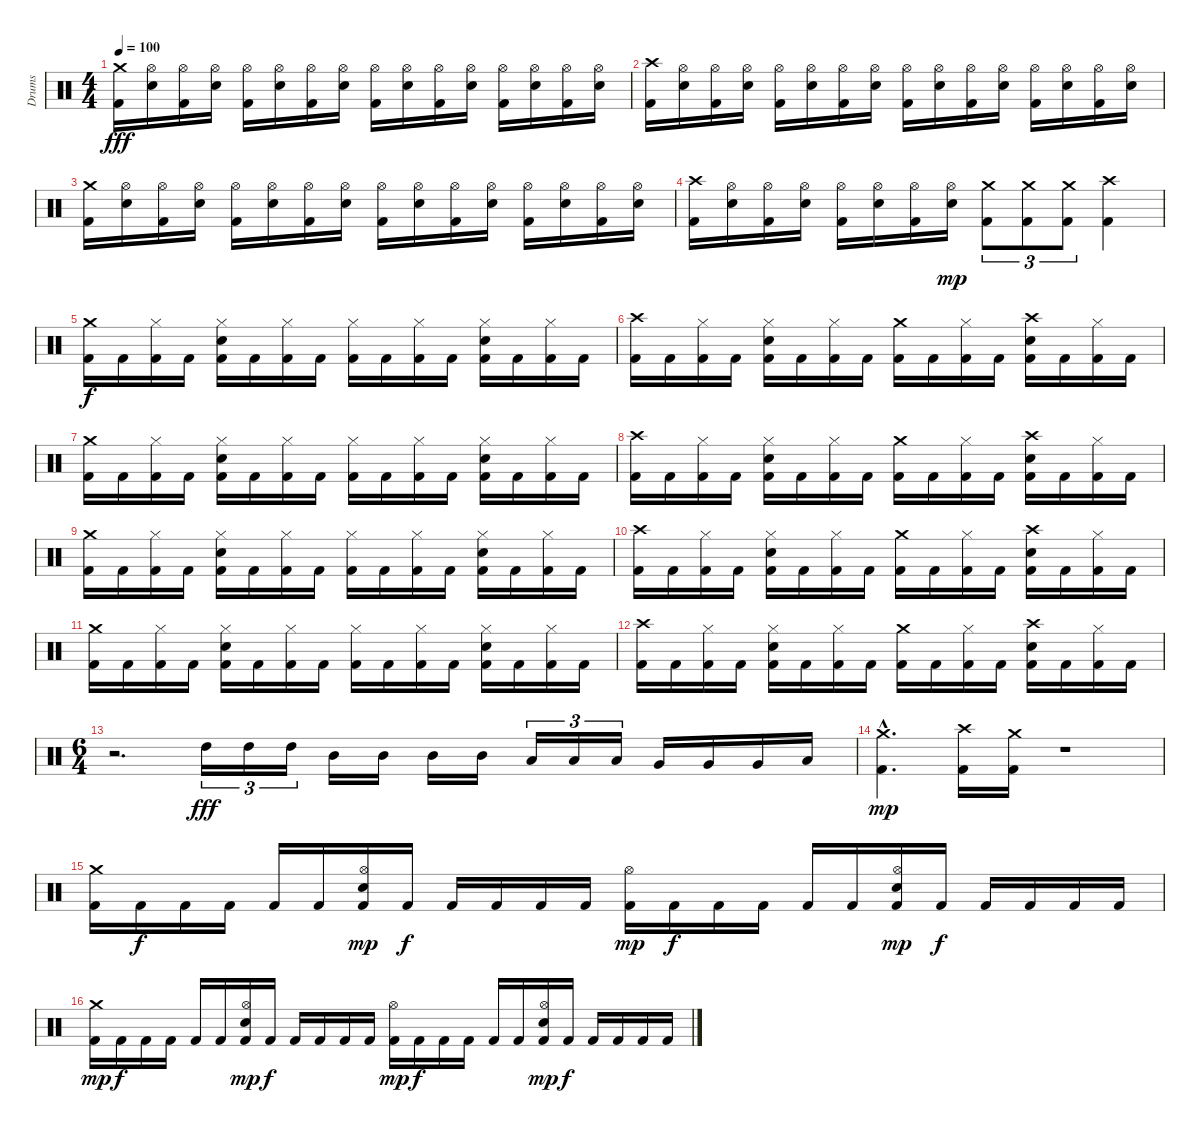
\track ("Drums" "Drums") {instrument percussion}
\staff {score}
\articulation defaults
\ts (4 4)
\tempo 100
\clef neutral
\ks c
("Crash medium (hit)" "Kick (hit) 2").16{dy fff} ("Hi-Hat (open)" "Snare (hit) 2").16 ("Hi-Hat (open)" "Kick (hit) 2").16 ("Hi-Hat (open)" "Snare (hit) 2").16 ("Hi-Hat (open)" "Kick (hit) 2").16 ("Hi-Hat (open)" "Snare (hit) 2").16 ("Hi-Hat (open)" "Kick (hit) 2").16 ("Hi-Hat (open)" "Snare (hit) 2").16 ("Hi-Hat (open)" "Kick (hit) 2").16 ("Hi-Hat (open)" "Snare (hit) 2").16 ("Hi-Hat (open)" "Kick (hit) 2").16 ("Hi-Hat (open)" "Snare (hit) 2").16 ("Hi-Hat (open)" "Kick (hit) 2").16 ("Hi-Hat (open)" "Snare (hit) 2").16 ("Hi-Hat (open)" "Kick (hit) 2").16 ("Hi-Hat (open)" "Snare (hit) 2").16 |
("Crash high (hit)" "Kick (hit) 2").16 ("Hi-Hat (open)" "Snare (hit) 2").16 ("Hi-Hat (open)" "Kick (hit) 2").16 ("Hi-Hat (open)" "Snare (hit) 2").16 ("Hi-Hat (open)" "Kick (hit) 2").16 ("Hi-Hat (open)" "Snare (hit) 2").16 ("Hi-Hat (open)" "Kick (hit) 2").16 ("Hi-Hat (open)" "Snare (hit) 2").16 ("Hi-Hat (open)" "Kick (hit) 2").16 ("Hi-Hat (open)" "Snare (hit) 2").16 ("Hi-Hat (open)" "Kick (hit) 2").16 ("Hi-Hat (open)" "Snare (hit) 2").16 ("Hi-Hat (open)" "Kick (hit) 2").16 ("Hi-Hat (open)" "Snare (hit) 2").16 ("Hi-Hat (open)" "Kick (hit) 2").16 ("Hi-Hat (open)" "Snare (hit) 2").16 |
("Crash medium (hit)" "Kick (hit) 2").16 ("Hi-Hat (open)" "Snare (hit) 2").16 ("Hi-Hat (open)" "Kick (hit) 2").16 ("Hi-Hat (open)" "Snare (hit) 2").16 ("Hi-Hat (open)" "Kick (hit) 2").16 ("Hi-Hat (open)" "Snare (hit) 2").16 ("Hi-Hat (open)" "Kick (hit) 2").16 ("Hi-Hat (open)" "Snare (hit) 2").16 ("Hi-Hat (open)" "Kick (hit) 2").16 ("Hi-Hat (open)" "Snare (hit) 2").16 ("Hi-Hat (open)" "Kick (hit) 2").16 ("Hi-Hat (open)" "Snare (hit) 2").16 ("Hi-Hat (open)" "Kick (hit) 2").16 ("Hi-Hat (open)" "Snare (hit) 2").16 ("Hi-Hat (open)" "Kick (hit) 2").16 ("Hi-Hat (open)" "Snare (hit) 2").16 |
("Crash high (hit)" "Kick (hit) 2").16 ("Hi-Hat (open)" "Snare (hit) 2").16 ("Hi-Hat (open)" "Kick (hit) 2").16 ("Hi-Hat (open)" "Snare (hit) 2").16 ("Hi-Hat (open)" "Kick (hit) 2").16 ("Hi-Hat (open)" "Snare (hit) 2").16 ("Hi-Hat (open)" "Kick (hit) 2").16 ("Hi-Hat (open)" "Snare (hit) 2").16{dy mp} ("Crash medium (hit)" "Kick (hit) 2").8{tu (3 2)} ("Crash medium (hit)" "Kick (hit) 2").8{tu (3 2)} ("Crash medium (hit)" "Kick (hit) 2").8{tu (3 2)} ("Crash high (hit)" "Kick (hit) 2").4 |
("Crash medium (hit)" "Kick (hit) 2").16{dy f} "Kick (hit) 2".16 ("Hi-Hat (closed)" "Kick (hit) 2").16 "Kick (hit) 2".16 ("Hi-Hat (closed)" "Snare (hit) 2" "Kick (hit) 2").16 "Kick (hit) 2".16 ("Hi-Hat (closed)" "Kick (hit) 2").16 "Kick (hit) 2".16 ("Hi-Hat (closed)" "Kick (hit) 2").16 "Kick (hit) 2".16 ("Hi-Hat (closed)" "Kick (hit) 2").16 "Kick (hit) 2".16 ("Hi-Hat (closed)" "Snare (hit) 2" "Kick (hit) 2").16 "Kick (hit) 2".16 ("Hi-Hat (closed)" "Kick (hit) 2").16 "Kick (hit) 2".16 |
("Crash high (hit)" "Kick (hit) 2").16 "Kick (hit) 2".16 ("Hi-Hat (closed)" "Kick (hit) 2").16 "Kick (hit) 2".16 ("Hi-Hat (closed)" "Snare (hit) 2" "Kick (hit) 2").16 "Kick (hit) 2".16 ("Hi-Hat (closed)" "Kick (hit) 2").16 "Kick (hit) 2".16 ("Crash medium (hit)" "Kick (hit) 2").16 "Kick (hit) 2".16 ("Hi-Hat (closed)" "Kick (hit) 2").16 "Kick (hit) 2".16 ("Crash high (hit)" "Snare (hit) 2" "Kick (hit) 2").16 "Kick (hit) 2".16 ("Hi-Hat (closed)" "Kick (hit) 2").16 "Kick (hit) 2".16 |
("Crash medium (hit)" "Kick (hit) 2").16 "Kick (hit) 2".16 ("Hi-Hat (closed)" "Kick (hit) 2").16 "Kick (hit) 2".16 ("Hi-Hat (closed)" "Snare (hit) 2" "Kick (hit) 2").16 "Kick (hit) 2".16 ("Hi-Hat (closed)" "Kick (hit) 2").16 "Kick (hit) 2".16 ("Hi-Hat (closed)" "Kick (hit) 2").16 "Kick (hit) 2".16 ("Hi-Hat (closed)" "Kick (hit) 2").16 "Kick (hit) 2".16 ("Hi-Hat (closed)" "Snare (hit) 2" "Kick (hit) 2").16 "Kick (hit) 2".16 ("Hi-Hat (closed)" "Kick (hit) 2").16 "Kick (hit) 2".16 |
("Crash high (hit)" "Kick (hit) 2").16 "Kick (hit) 2".16 ("Hi-Hat (closed)" "Kick (hit) 2").16 "Kick (hit) 2".16 ("Hi-Hat (closed)" "Snare (hit) 2" "Kick (hit) 2").16 "Kick (hit) 2".16 ("Hi-Hat (closed)" "Kick (hit) 2").16 "Kick (hit) 2".16 ("Crash medium (hit)" "Kick (hit) 2").16 "Kick (hit) 2".16 ("Hi-Hat (closed)" "Kick (hit) 2").16 "Kick (hit) 2".16 ("Crash high (hit)" "Snare (hit) 2" "Kick (hit) 2").16 "Kick (hit) 2".16 ("Hi-Hat (closed)" "Kick (hit) 2").16 "Kick (hit) 2".16 |
("Crash medium (hit)" "Kick (hit) 2").16 "Kick (hit) 2".16 ("Hi-Hat (closed)" "Kick (hit) 2").16 "Kick (hit) 2".16 ("Hi-Hat (closed)" "Snare (hit) 2" "Kick (hit) 2").16 "Kick (hit) 2".16 ("Hi-Hat (closed)" "Kick (hit) 2").16 "Kick (hit) 2".16 ("Hi-Hat (closed)" "Kick (hit) 2").16 "Kick (hit) 2".16 ("Hi-Hat (closed)" "Kick (hit) 2").16 "Kick (hit) 2".16 ("Hi-Hat (closed)" "Snare (hit) 2" "Kick (hit) 2").16 "Kick (hit) 2".16 ("Hi-Hat (closed)" "Kick (hit) 2").16 "Kick (hit) 2".16 |
("Crash high (hit)" "Kick (hit) 2").16 "Kick (hit) 2".16 ("Hi-Hat (closed)" "Kick (hit) 2").16 "Kick (hit) 2".16 ("Hi-Hat (closed)" "Snare (hit) 2" "Kick (hit) 2").16 "Kick (hit) 2".16 ("Hi-Hat (closed)" "Kick (hit) 2").16 "Kick (hit) 2".16 ("Crash medium (hit)" "Kick (hit) 2").16 "Kick (hit) 2".16 ("Hi-Hat (closed)" "Kick (hit) 2").16 "Kick (hit) 2".16 ("Crash high (hit)" "Snare (hit) 2" "Kick (hit) 2").16 "Kick (hit) 2".16 ("Hi-Hat (closed)" "Kick (hit) 2").16 "Kick (hit) 2".16 |
("Crash medium (hit)" "Kick (hit) 2").16 "Kick (hit) 2".16 ("Hi-Hat (closed)" "Kick (hit) 2").16 "Kick (hit) 2".16 ("Hi-Hat (closed)" "Snare (hit) 2" "Kick (hit) 2").16 "Kick (hit) 2".16 ("Hi-Hat (closed)" "Kick (hit) 2").16 "Kick (hit) 2".16 ("Hi-Hat (closed)" "Kick (hit) 2").16 "Kick (hit) 2".16 ("Hi-Hat (closed)" "Kick (hit) 2").16 "Kick (hit) 2".16 ("Hi-Hat (closed)" "Snare (hit) 2" "Kick (hit) 2").16 "Kick (hit) 2".16 ("Hi-Hat (closed)" "Kick (hit) 2").16 "Kick (hit) 2".16 |
("Crash high (hit)" "Kick (hit) 2").16 "Kick (hit) 2".16 ("Hi-Hat (closed)" "Kick (hit) 2").16 "Kick (hit) 2".16 ("Hi-Hat (closed)" "Snare (hit) 2" "Kick (hit) 2").16 "Kick (hit) 2".16 ("Hi-Hat (closed)" "Kick (hit) 2").16 "Kick (hit) 2".16 ("Crash medium (hit)" "Kick (hit) 2").16 "Kick (hit) 2".16 ("Hi-Hat (closed)" "Kick (hit) 2").16 "Kick (hit) 2".16 ("Crash high (hit)" "Snare (hit) 2" "Kick (hit) 2").16 "Kick (hit) 2".16 ("Hi-Hat (closed)" "Kick (hit) 2").16 "Kick (hit) 2".16 |
\ts (6 4)
r.2{d} "High Tom (hit)".16{tu (3 2) dy fff} "High Tom (hit)".16{tu (3 2)} "High Tom (hit)".16{tu (3 2)} "Mid Tom (hit)".16 "Mid Tom (hit)".16 "Mid Tom (hit)".16 "Mid Tom (hit)".16 "Low Tom (hit)".16{tu (3 2)} "Low Tom (hit)".16{tu (3 2)} "Low Tom (hit)".16{tu (3 2)} "Very Low Tom (hit)".16 "Very Low Tom (hit)".16 "Very Low Tom (hit)".16 "Low Floor Tom (hit)".16 |
("Crash medium (hit)"{hac} "Kick (hit) 2"{hac}).4{d dy mp} ("Crash high (hit)" "Kick (hit) 2").16 ("Crash medium (hit)" "Kick (hit) 2").16 r.1 |
("Crash medium (hit)" "Kick (hit) 2").16 "Kick (hit) 2".16{dy f} "Kick (hit) 2".16 "Kick (hit) 2".16 "Kick (hit) 2".16 "Kick (hit) 2".16 ("Hi-Hat (open)" "Snare (hit) 2" "Kick (hit) 2").16{dy mp} "Kick (hit) 2".16{dy f} "Kick (hit) 2".16 "Kick (hit) 2".16 "Kick (hit) 2".16 "Kick (hit) 2".16 ("Hi-Hat (open)" "Kick (hit) 2").16{dy mp} "Kick (hit) 2".16{dy f} "Kick (hit) 2".16 "Kick (hit) 2".16 "Kick (hit) 2".16 "Kick (hit) 2".16 ("Hi-Hat (open)" "Snare (hit) 2" "Kick (hit) 2").16{dy mp} "Kick (hit) 2".16{dy f} "Kick (hit) 2".16 "Kick (hit) 2".16 "Kick (hit) 2".16 "Kick (hit) 2".16 |
("Crash medium (hit)" "Kick (hit) 2").16{dy mp} "Kick (hit) 2".16{dy f} "Kick (hit) 2".16 "Kick (hit) 2".16 "Kick (hit) 2".16 "Kick (hit) 2".16 ("Hi-Hat (open)" "Snare (hit) 2" "Kick (hit) 2").16{dy mp} "Kick (hit) 2".16{dy f} "Kick (hit) 2".16 "Kick (hit) 2".16 "Kick (hit) 2".16 "Kick (hit) 2".16 ("Hi-Hat (open)" "Kick (hit) 2").16{dy mp} "Kick (hit) 2".16{dy f} "Kick (hit) 2".16 "Kick (hit) 2".16 "Kick (hit) 2".16 "Kick (hit) 2".16 ("Hi-Hat (open)" "Snare (hit) 2" "Kick (hit) 2").16{dy mp} "Kick (hit) 2".16{dy f} "Kick (hit) 2".16 "Kick (hit) 2".16 "Kick (hit) 2".16 "Kick (hit) 2".16
